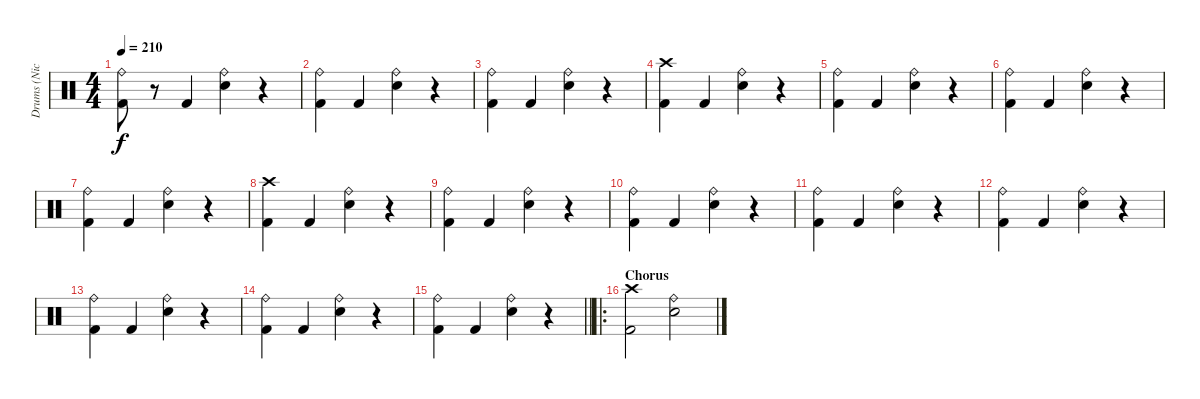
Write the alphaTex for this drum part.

\track ("Drums (Nicko McBrain)" "Drums (Nic") {instrument percussion}
\staff {score}
\articulation defaults
\ts (4 4)
\tempo 210
\clef neutral
\ks c
("Ride (bell)" "Kick (hit) 2").8{dy f} r.8 "Kick (hit) 2".4 ("Ride (bell)" "Electric Snare (hit)").4 r.4 |
("Ride (bell)" "Kick (hit) 2").4 "Kick (hit) 2".4 ("Ride (bell)" "Electric Snare (hit)").4 r.4 |
("Ride (bell)" "Kick (hit) 2").4 "Kick (hit) 2".4 ("Ride (bell)" "Electric Snare (hit)").4 r.4 |
("Crash high (hit)" "Kick (hit) 2").4 "Kick (hit) 2".4 ("Ride (bell)" "Electric Snare (hit)").4 r.4 |
("Ride (bell)" "Kick (hit) 2").4 "Kick (hit) 2".4 ("Ride (bell)" "Electric Snare (hit)").4 r.4 |
("Ride (bell)" "Kick (hit) 2").4 "Kick (hit) 2".4 ("Ride (bell)" "Electric Snare (hit)").4 r.4 |
("Ride (bell)" "Kick (hit) 2").4 "Kick (hit) 2".4 ("Ride (bell)" "Electric Snare (hit)").4 r.4 |
("Crash high (hit)" "Kick (hit) 2").4 "Kick (hit) 2".4 ("Ride (bell)" "Electric Snare (hit)").4 r.4 |
("Ride (bell)" "Kick (hit) 2").4 "Kick (hit) 2".4 ("Ride (bell)" "Electric Snare (hit)").4 r.4 |
("Ride (bell)" "Kick (hit) 2").4 "Kick (hit) 2".4 ("Ride (bell)" "Electric Snare (hit)").4 r.4 |
("Ride (bell)" "Kick (hit) 2").4 "Kick (hit) 2".4 ("Ride (bell)" "Electric Snare (hit)").4 r.4 |
("Ride (bell)" "Kick (hit) 2").4 "Kick (hit) 2".4 ("Ride (bell)" "Electric Snare (hit)").4 r.4 |
("Ride (bell)" "Kick (hit) 2").4 "Kick (hit) 2".4 ("Ride (bell)" "Electric Snare (hit)").4 r.4 |
("Ride (bell)" "Kick (hit) 2").4 "Kick (hit) 2".4 ("Ride (bell)" "Electric Snare (hit)").4 r.4 |
\barLineRight lightlight
("Ride (bell)" "Kick (hit) 2").4 "Kick (hit) 2".4 ("Ride (bell)" "Electric Snare (hit)").4 r.4 |
\ro
\section ("" "Chorus")
("Crash high (hit)" "Kick (hit) 2").2 ("Ride (bell)" "Electric Snare (hit)").2
